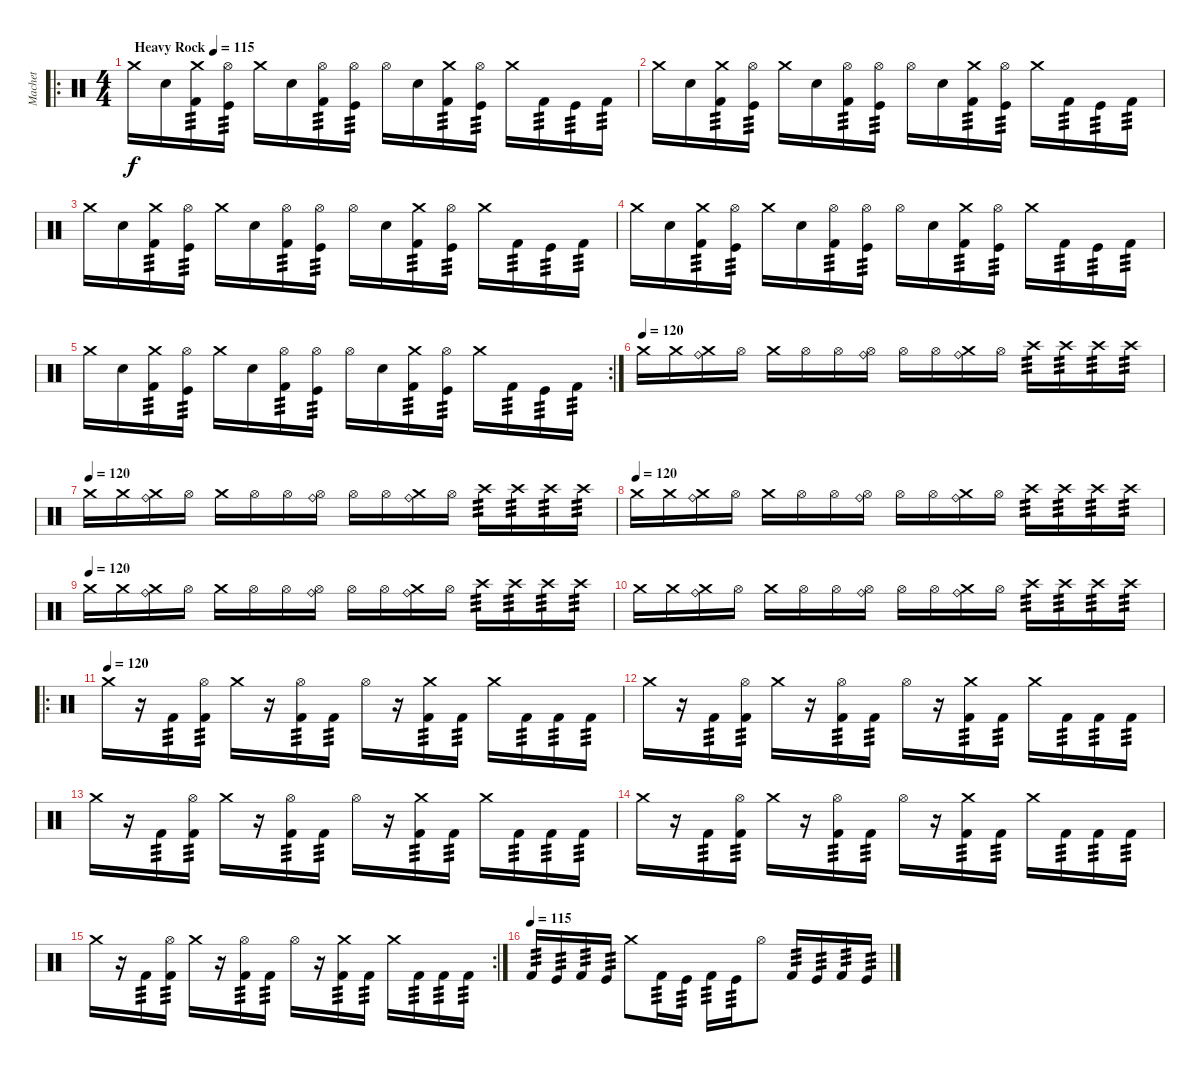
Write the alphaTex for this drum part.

\track ("Machet" "Machet") {instrument percussion}
\staff {score}
\articulation defaults
\ro
\ts (4 4)
\tempo (115 "Heavy Rock")
\clef neutral
\ks c "Crash medium (hit)".16{dy f} "Electric Snare (hit)".16
("Crash medium (hit)" "Kick (hit) 2").16{tp 3} ("Hi-Hat (open)" "Kick (hit)").16{tp 3} "Crash medium (hit)".16 "Electric Snare (hit)".16 ("Hi-Hat (open)" "Kick (hit) 2").16{tp 3} ("Hi-Hat (open)" "Kick (hit)").16{tp 3} "Hi-Hat (open)".16 "Electric Snare (hit)".16 ("Crash medium (hit)" "Kick (hit) 2").16{tp 3} ("Hi-Hat (open)" "Kick (hit)").16{tp 3} "Crash medium (hit)".16 "Kick (hit) 2".16{tp 3} "Kick (hit)".16{tp 3} "Kick (hit) 2".16{tp 3} |
"Crash medium (hit)".16 "Electric Snare (hit)".16 ("Crash medium (hit)" "Kick (hit) 2").16{tp 3} ("Hi-Hat (open)" "Kick (hit)").16{tp 3} "Crash medium (hit)".16 "Electric Snare (hit)".16 ("Hi-Hat (open)" "Kick (hit) 2").16{tp 3} ("Hi-Hat (open)" "Kick (hit)").16{tp 3} "Hi-Hat (open)".16 "Electric Snare (hit)".16 ("Crash medium (hit)" "Kick (hit) 2").16{tp 3} ("Hi-Hat (open)" "Kick (hit)").16{tp 3} "Crash medium (hit)".16 "Kick (hit) 2".16{tp 3} "Kick (hit)".16{tp 3} "Kick (hit) 2".16{tp 3} |
"Crash medium (hit)".16 "Electric Snare (hit)".16 ("Crash medium (hit)" "Kick (hit) 2").16{tp 3} ("Hi-Hat (open)" "Kick (hit)").16{tp 3} "Crash medium (hit)".16 "Electric Snare (hit)".16 ("Hi-Hat (open)" "Kick (hit) 2").16{tp 3} ("Hi-Hat (open)" "Kick (hit)").16{tp 3} "Hi-Hat (open)".16 "Electric Snare (hit)".16 ("Crash medium (hit)" "Kick (hit) 2").16{tp 3} ("Hi-Hat (open)" "Kick (hit)").16{tp 3} "Crash medium (hit)".16 "Kick (hit) 2".16{tp 3} "Kick (hit)".16{tp 3} "Kick (hit) 2".16{tp 3} |
"Crash medium (hit)".16 "Electric Snare (hit)".16 ("Crash medium (hit)" "Kick (hit) 2").16{tp 3} ("Hi-Hat (open)" "Kick (hit)").16{tp 3} "Crash medium (hit)".16 "Electric Snare (hit)".16 ("Hi-Hat (open)" "Kick (hit) 2").16{tp 3} ("Hi-Hat (open)" "Kick (hit)").16{tp 3} "Hi-Hat (open)".16 "Electric Snare (hit)".16 ("Crash medium (hit)" "Kick (hit) 2").16{tp 3} ("Hi-Hat (open)" "Kick (hit)").16{tp 3} "Crash medium (hit)".16 "Kick (hit) 2".16{tp 3} "Kick (hit)".16{tp 3} "Kick (hit) 2".16{tp 3} |
\rc 2 "Crash medium (hit)".16 "Electric Snare (hit)".16
("Crash medium (hit)" "Kick (hit) 2").16{tp 3} ("Hi-Hat (open)" "Kick (hit)").16{tp 3} "Crash medium (hit)".16 "Electric Snare (hit)".16 ("Hi-Hat (open)" "Kick (hit) 2").16{tp 3} ("Hi-Hat (open)" "Kick (hit)").16{tp 3} "Hi-Hat (open)".16 "Electric Snare (hit)".16 ("Crash medium (hit)" "Kick (hit) 2").16{tp 3} ("Hi-Hat (open)" "Kick (hit)").16{tp 3} "Crash medium (hit)".16 "Kick (hit) 2".16{tp 3} "Kick (hit)".16{tp 3} "Kick (hit) 2".16{tp 3} |
\tempo (120)
"Crash medium (hit)".16 "Crash medium (hit)".16 ("Crash medium (hit)" "Ride (bell)").16 "Hi-Hat (open)".16 "Crash medium (hit)".16 "Hi-Hat (open)".16 "Hi-Hat (open)".16 ("Hi-Hat (open)" "Ride (bell)").16 "Hi-Hat (open)".16 "Hi-Hat (open)".16 ("Crash medium (hit)" "Ride (bell)").16 "Hi-Hat (open)".16 "Crash high (hit)".16{tp 3} "Crash high (hit)".16{tp 3} "Crash high (hit)".16{tp 3} "Crash high (hit)".16{tp 3} |
\tempo (120)
"Crash medium (hit)".16 "Crash medium (hit)".16 ("Crash medium (hit)" "Ride (bell)").16 "Hi-Hat (open)".16 "Crash medium (hit)".16 "Hi-Hat (open)".16 "Hi-Hat (open)".16 ("Hi-Hat (open)" "Ride (bell)").16 "Hi-Hat (open)".16 "Hi-Hat (open)".16 ("Crash medium (hit)" "Ride (bell)").16 "Hi-Hat (open)".16 "Crash high (hit)".16{tp 3} "Crash high (hit)".16{tp 3} "Crash high (hit)".16{tp 3} "Crash high (hit)".16{tp 3} |
\tempo (120)
"Crash medium (hit)".16 "Crash medium (hit)".16 ("Crash medium (hit)" "Ride (bell)").16 "Hi-Hat (open)".16 "Crash medium (hit)".16 "Hi-Hat (open)".16 "Hi-Hat (open)".16 ("Hi-Hat (open)" "Ride (bell)").16 "Hi-Hat (open)".16 "Hi-Hat (open)".16 ("Crash medium (hit)" "Ride (bell)").16 "Hi-Hat (open)".16 "Crash high (hit)".16{tp 3} "Crash high (hit)".16{tp 3} "Crash high (hit)".16{tp 3} "Crash high (hit)".16{tp 3} |
\tempo (120)
"Crash medium (hit)".16 "Crash medium (hit)".16 ("Crash medium (hit)" "Ride (bell)").16 "Hi-Hat (open)".16 "Crash medium (hit)".16 "Hi-Hat (open)".16 "Hi-Hat (open)".16 ("Hi-Hat (open)" "Ride (bell)").16 "Hi-Hat (open)".16 "Hi-Hat (open)".16 ("Crash medium (hit)" "Ride (bell)").16 "Hi-Hat (open)".16 "Crash high (hit)".16{tp 3} "Crash high (hit)".16{tp 3} "Crash high (hit)".16{tp 3} "Crash high (hit)".16{tp 3} |
"Crash medium (hit)".16 "Crash medium (hit)".16 ("Crash medium (hit)" "Ride (bell)").16 "Hi-Hat (open)".16 "Crash medium (hit)".16 "Hi-Hat (open)".16 "Hi-Hat (open)".16 ("Hi-Hat (open)" "Ride (bell)").16 "Hi-Hat (open)".16 "Hi-Hat (open)".16 ("Crash medium (hit)" "Ride (bell)").16 "Hi-Hat (open)".16 "Crash high (hit)".16{tp 3} "Crash high (hit)".16{tp 3} "Crash high (hit)".16{tp 3} "Crash high (hit)".16{tp 3} |
\ro
\tempo (120)
"Crash medium (hit)".16 r.16 "Kick (hit) 2".16{tp 3} ("Hi-Hat (open)" "Kick (hit) 2").16{tp 3} "Crash medium (hit)".16 r.16 ("Hi-Hat (open)" "Kick (hit) 2").16{tp 3} "Kick (hit) 2".16{tp 3} "Hi-Hat (open)".16 r.16 ("Crash medium (hit)" "Kick (hit) 2").16{tp 3} "Kick (hit) 2".16{tp 3} "Crash medium (hit)".16 "Kick (hit) 2".16{tp 3} "Kick (hit) 2".16{tp 3} "Kick (hit) 2".16{tp 3} |
"Crash medium (hit)".16 r.16 "Kick (hit) 2".16{tp 3} ("Hi-Hat (open)" "Kick (hit) 2").16{tp 3} "Crash medium (hit)".16 r.16 ("Hi-Hat (open)" "Kick (hit) 2").16{tp 3} "Kick (hit) 2".16{tp 3} "Hi-Hat (open)".16 r.16 ("Crash medium (hit)" "Kick (hit) 2").16{tp 3} "Kick (hit) 2".16{tp 3} "Crash medium (hit)".16 "Kick (hit) 2".16{tp 3} "Kick (hit) 2".16{tp 3} "Kick (hit) 2".16{tp 3} |
"Crash medium (hit)".16 r.16 "Kick (hit) 2".16{tp 3} ("Hi-Hat (open)" "Kick (hit) 2").16{tp 3} "Crash medium (hit)".16 r.16 ("Hi-Hat (open)" "Kick (hit) 2").16{tp 3} "Kick (hit) 2".16{tp 3} "Hi-Hat (open)".16 r.16 ("Crash medium (hit)" "Kick (hit) 2").16{tp 3} "Kick (hit) 2".16{tp 3} "Crash medium (hit)".16 "Kick (hit) 2".16{tp 3} "Kick (hit) 2".16{tp 3} "Kick (hit) 2".16{tp 3} |
"Crash medium (hit)".16 r.16 "Kick (hit) 2".16{tp 3} ("Hi-Hat (open)" "Kick (hit) 2").16{tp 3} "Crash medium (hit)".16 r.16 ("Hi-Hat (open)" "Kick (hit) 2").16{tp 3} "Kick (hit) 2".16{tp 3} "Hi-Hat (open)".16 r.16 ("Crash medium (hit)" "Kick (hit) 2").16{tp 3} "Kick (hit) 2".16{tp 3} "Crash medium (hit)".16 "Kick (hit) 2".16{tp 3} "Kick (hit) 2".16{tp 3} "Kick (hit) 2".16{tp 3} |
\rc 2 "Crash medium (hit)".16
r.16 "Kick (hit) 2".16{tp 3} ("Hi-Hat (open)" "Kick (hit) 2").16{tp 3} "Crash medium (hit)".16 r.16 ("Hi-Hat (open)" "Kick (hit) 2").16{tp 3} "Kick (hit) 2".16{tp 3} "Hi-Hat (open)".16 r.16 ("Crash medium (hit)" "Kick (hit) 2").16{tp 3} "Kick (hit) 2".16{tp 3} "Crash medium (hit)".16 "Kick (hit) 2".16{tp 3} "Kick (hit) 2".16{tp 3} "Kick (hit) 2".16{tp 3} |
\tempo (115)
"Kick (hit) 2".16{tp 3} "Kick (hit)".16{tp 3} "Kick (hit) 2".16{tp 3} "Kick (hit)".16{tp 3} "Crash medium (hit)".8 "Kick (hit) 2".16{tp 3} "Kick (hit)".16{tp 3} "Kick (hit) 2".16{tp 3} "Kick (hit)".16{tp 3} "Hi-Hat (open)".8 "Kick (hit) 2".16{tp 3} "Kick (hit)".16{tp 3} "Kick (hit) 2".16{tp 3} "Kick (hit)".16{tp 3}
